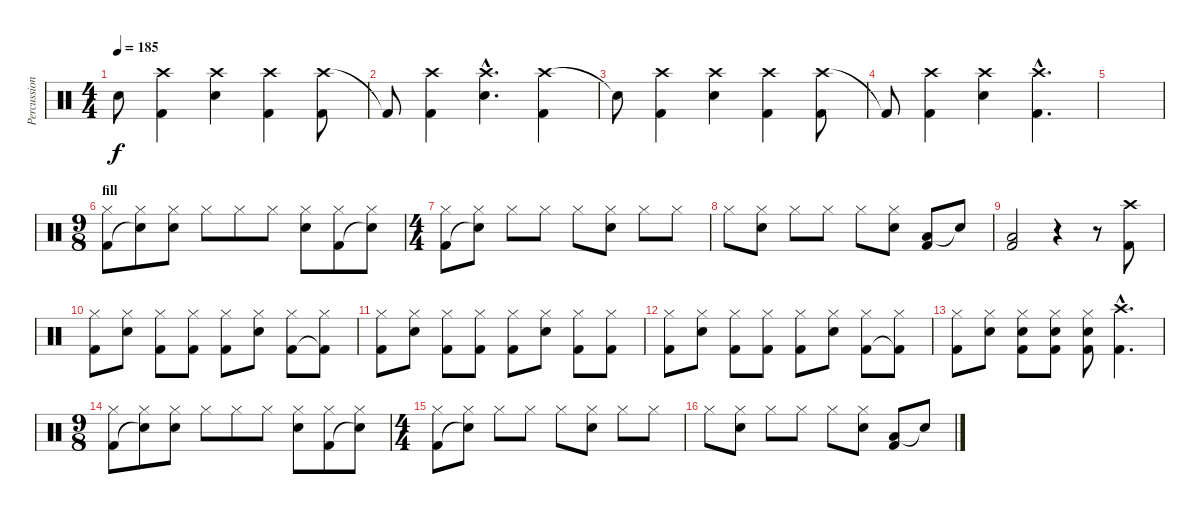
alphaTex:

\track ("Percussion" "Percussion") {instrument percussion}
\staff {score}
\articulation defaults
\ts (4 4)
\tempo 185
\clef neutral
\ks c "Snare (hit)"{t}.8{dy f}
("Crash high (hit)" "Kick (hit) 2").4 ("Crash high (hit)" "Snare (hit) 2").4 ("Crash high (hit)" "Kick (hit) 2").4 ("Crash high (hit)" "Kick (hit) 2").8 |
"Kick (hit) 2"{t}.8 ("Crash high (hit)" "Kick (hit) 2").4 ("Crash high (hit)"{hac} "Snare (hit) 2"{hac}).4{d} ("Crash high (hit)" "Kick (hit) 2").4 |
"Snare (hit)"{t}.8 ("Crash high (hit)" "Kick (hit) 2").4 ("Crash high (hit)" "Snare (hit) 2").4 ("Crash high (hit)" "Kick (hit) 2").4 ("Crash high (hit)" "Kick (hit) 2").8 |
"Kick (hit) 2"{t}.8 ("Crash high (hit)" "Kick (hit) 2").4 ("Crash high (hit)" "Snare (hit) 2").4 ("Crash high (hit)"{hac} "Kick (hit) 2"{hac}).4{d} |
|
\ts (9 8)
\section ("" "fill")
("Hi-Hat (closed)" "Kick (hit) 2").8 ("Hi-Hat (closed)" "Snare (hit)"{t}).8 ("Hi-Hat (closed)" "Snare (hit) 2").8 "Hi-Hat (closed)".8 "Hi-Hat (closed)".8 "Hi-Hat (closed)".8 ("Hi-Hat (closed)" "Snare (hit) 2").8 ("Hi-Hat (closed)" "Kick (hit) 2").8 ("Hi-Hat (closed)" "Snare (hit)"{t}).8 |
\ts (4 4)
("Hi-Hat (closed)" "Kick (hit) 2").8 ("Hi-Hat (closed)" "Snare (hit)"{t}).8 "Hi-Hat (closed)".8 "Hi-Hat (closed)".8 "Hi-Hat (closed)".8 ("Hi-Hat (closed)" "Snare (hit) 2").8 "Hi-Hat (closed)".8 "Hi-Hat (closed)".8 |
"Hi-Hat (closed)".8 ("Hi-Hat (closed)" "Snare (hit) 2").8 "Hi-Hat (closed)".8 "Hi-Hat (closed)".8 "Hi-Hat (closed)".8 ("Hi-Hat (closed)" "Snare (hit) 2").8 ("Low Tom (hit)" "Kick (hit) 2").8 "Snare (hit)"{t}.8 |
("Low Tom (hit)" "Kick (hit) 2").2 r.4 r.8 ("Crash high (hit)" "Kick (hit) 2").8 |
("Hi-Hat (closed)" "Kick (hit) 2").8 ("Hi-Hat (closed)" "Snare (hit) 2").8 ("Hi-Hat (closed)" "Kick (hit) 2").8 ("Hi-Hat (closed)" "Kick (hit) 2").8 ("Hi-Hat (closed)" "Kick (hit) 2").8 ("Hi-Hat (closed)" "Snare (hit) 2").8 ("Hi-Hat (closed)" "Kick (hit) 2").8 ("Hi-Hat (closed)" "Kick (hit) 2"{t}).8 |
("Hi-Hat (closed)" "Kick (hit) 2").8 ("Hi-Hat (closed)" "Snare (hit) 2").8 ("Hi-Hat (closed)" "Kick (hit) 2").8 ("Hi-Hat (closed)" "Kick (hit) 2").8 ("Hi-Hat (closed)" "Kick (hit) 2").8 ("Hi-Hat (closed)" "Snare (hit) 2").8 ("Hi-Hat (closed)" "Kick (hit) 2").8 ("Hi-Hat (closed)" "Kick (hit) 2").8 |
("Hi-Hat (closed)" "Kick (hit) 2").8 ("Hi-Hat (closed)" "Snare (hit) 2").8 ("Hi-Hat (closed)" "Kick (hit) 2").8 ("Hi-Hat (closed)" "Kick (hit) 2").8 ("Hi-Hat (closed)" "Kick (hit) 2").8 ("Hi-Hat (closed)" "Snare (hit) 2").8 ("Hi-Hat (closed)" "Kick (hit) 2").8 ("Hi-Hat (closed)" "Kick (hit) 2"{t}).8 |
("Hi-Hat (closed)" "Kick (hit) 2").8 ("Hi-Hat (closed)" "Snare (hit) 2").8 ("Hi-Hat (closed)" "Snare (hit) 2" "Kick (hit) 2").8 ("Hi-Hat (closed)" "Snare (hit) 2" "Kick (hit) 2").8 ("Hi-Hat (closed)" "Snare (hit) 2" "Kick (hit) 2").8 ("Crash high (hit)"{hac} "Kick (hit) 2"{hac}).4{d} |
\ts (9 8)
("Hi-Hat (closed)" "Kick (hit) 2").8 ("Hi-Hat (closed)" "Snare (hit)"{t}).8 ("Hi-Hat (closed)" "Snare (hit) 2").8 "Hi-Hat (closed)".8 "Hi-Hat (closed)".8 "Hi-Hat (closed)".8 ("Hi-Hat (closed)" "Snare (hit) 2").8 ("Hi-Hat (closed)" "Kick (hit) 2").8 ("Hi-Hat (closed)" "Snare (hit)"{t}).8 |
\ts (4 4)
("Hi-Hat (closed)" "Kick (hit) 2").8 ("Hi-Hat (closed)" "Snare (hit)"{t}).8 "Hi-Hat (closed)".8 "Hi-Hat (closed)".8 "Hi-Hat (closed)".8 ("Hi-Hat (closed)" "Snare (hit) 2").8 "Hi-Hat (closed)".8 "Hi-Hat (closed)".8 |
"Hi-Hat (closed)".8 ("Hi-Hat (closed)" "Snare (hit) 2").8 "Hi-Hat (closed)".8 "Hi-Hat (closed)".8 "Hi-Hat (closed)".8 ("Hi-Hat (closed)" "Snare (hit) 2").8 ("Low Tom (hit)" "Kick (hit) 2").8 "Snare (hit)"{t}.8
